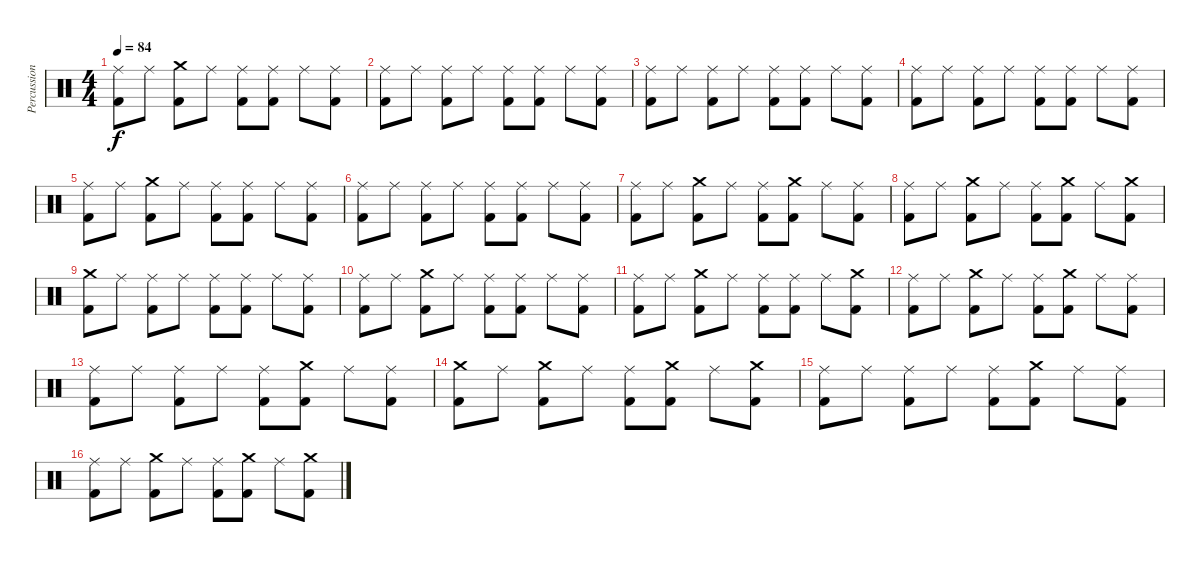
\track ("Percussion" "Percussion") {instrument percussion}
\staff {score}
\articulation defaults
\ts (4 4)
\tempo 84
\clef neutral
\ks c
("Ride (middle)" "Kick (hit) 2").8{dy f} "Ride (middle)".8 ("Crash medium (hit)" "Kick (hit) 2").8 "Ride (middle)".8 ("Ride (middle)" "Kick (hit) 2").8 ("Ride (middle)" "Kick (hit) 2").8 "Ride (middle)".8 ("Ride (middle)" "Kick (hit) 2").8 |
("Ride (middle)" "Kick (hit) 2").8 "Ride (middle)".8 ("Ride (middle)" "Kick (hit) 2").8 "Ride (middle)".8 ("Ride (middle)" "Kick (hit) 2").8 ("Ride (middle)" "Kick (hit) 2").8 "Ride (middle)".8 ("Ride (middle)" "Kick (hit) 2").8 |
("Ride (middle)" "Kick (hit) 2").8 "Ride (middle)".8 ("Ride (middle)" "Kick (hit) 2").8 "Ride (middle)".8 ("Ride (middle)" "Kick (hit) 2").8 ("Ride (middle)" "Kick (hit) 2").8 "Ride (middle)".8 ("Ride (middle)" "Kick (hit) 2").8 |
("Ride (middle)" "Kick (hit) 2").8 "Ride (middle)".8 ("Ride (middle)" "Kick (hit) 2").8 "Ride (middle)".8 ("Ride (middle)" "Kick (hit) 2").8 ("Ride (middle)" "Kick (hit) 2").8 "Ride (middle)".8 ("Ride (middle)" "Kick (hit) 2").8 |
("Ride (middle)" "Kick (hit) 2").8 "Ride (middle)".8 ("Crash medium (hit)" "Kick (hit) 2").8 "Ride (middle)".8 ("Ride (middle)" "Kick (hit) 2").8 ("Ride (middle)" "Kick (hit) 2").8 "Ride (middle)".8 ("Ride (middle)" "Kick (hit) 2").8 |
("Ride (middle)" "Kick (hit) 2").8 "Ride (middle)".8 ("Ride (middle)" "Kick (hit) 2").8 "Ride (middle)".8 ("Ride (middle)" "Kick (hit) 2").8 ("Ride (middle)" "Kick (hit) 2").8 "Ride (middle)".8 ("Ride (middle)" "Kick (hit) 2").8 |
("Ride (middle)" "Kick (hit) 2").8 "Ride (middle)".8 ("Crash medium (hit)" "Kick (hit) 2").8 "Ride (middle)".8 ("Ride (middle)" "Kick (hit) 2").8 ("Crash medium (hit)" "Kick (hit) 2").8 "Ride (middle)".8 ("Ride (middle)" "Kick (hit) 2").8 |
("Ride (middle)" "Kick (hit) 2").8 "Ride (middle)".8 ("Crash medium (hit)" "Kick (hit) 2").8 "Ride (middle)".8 ("Ride (middle)" "Kick (hit) 2").8 ("Crash medium (hit)" "Kick (hit) 2").8 "Ride (middle)".8 ("Crash medium (hit)" "Kick (hit) 2").8 |
("Crash medium (hit)" "Kick (hit) 2").8 "Ride (middle)".8 ("Ride (middle)" "Kick (hit) 2").8 "Ride (middle)".8 ("Ride (middle)" "Kick (hit) 2").8 ("Ride (middle)" "Kick (hit) 2").8 "Ride (middle)".8 ("Ride (middle)" "Kick (hit) 2").8 |
("Ride (middle)" "Kick (hit) 2").8 "Ride (middle)".8 ("Crash medium (hit)" "Kick (hit) 2").8 "Ride (middle)".8 ("Ride (middle)" "Kick (hit) 2").8 ("Ride (middle)" "Kick (hit) 2").8 "Ride (middle)".8 ("Ride (middle)" "Kick (hit) 2").8 |
("Ride (middle)" "Kick (hit) 2").8 "Ride (middle)".8 ("Crash medium (hit)" "Kick (hit) 2").8 "Ride (middle)".8 ("Ride (middle)" "Kick (hit) 2").8 ("Ride (middle)" "Kick (hit) 2").8 "Ride (middle)".8 ("Crash medium (hit)" "Kick (hit) 2").8 |
("Ride (middle)" "Kick (hit) 2").8 "Ride (middle)".8 ("Crash medium (hit)" "Kick (hit) 2").8 "Ride (middle)".8 ("Ride (middle)" "Kick (hit) 2").8 ("Crash medium (hit)" "Kick (hit) 2").8 "Ride (middle)".8 ("Ride (middle)" "Kick (hit) 2").8 |
("Ride (middle)" "Kick (hit) 2").8 "Ride (middle)".8 ("Ride (middle)" "Kick (hit) 2").8 "Ride (middle)".8 ("Ride (middle)" "Kick (hit) 2").8 ("Crash medium (hit)" "Kick (hit) 2").8 "Ride (middle)".8 ("Ride (middle)" "Kick (hit) 2").8 |
("Crash medium (hit)" "Kick (hit) 2").8 "Ride (middle)".8 ("Crash medium (hit)" "Kick (hit) 2").8 "Ride (middle)".8 ("Ride (middle)" "Kick (hit) 2").8 ("Crash medium (hit)" "Kick (hit) 2").8 "Ride (middle)".8 ("Crash medium (hit)" "Kick (hit) 2").8 |
("Ride (middle)" "Kick (hit) 2").8 "Ride (middle)".8 ("Ride (middle)" "Kick (hit) 2").8 "Ride (middle)".8 ("Ride (middle)" "Kick (hit) 2").8 ("Crash medium (hit)" "Kick (hit) 2").8 "Ride (middle)".8 ("Ride (middle)" "Kick (hit) 2").8 |
("Ride (middle)" "Kick (hit) 2").8 "Ride (middle)".8 ("Crash medium (hit)" "Kick (hit) 2").8 "Ride (middle)".8 ("Ride (middle)" "Kick (hit) 2").8 ("Crash medium (hit)" "Kick (hit) 2").8 "Ride (middle)".8 ("Crash medium (hit)" "Kick (hit) 2").8
